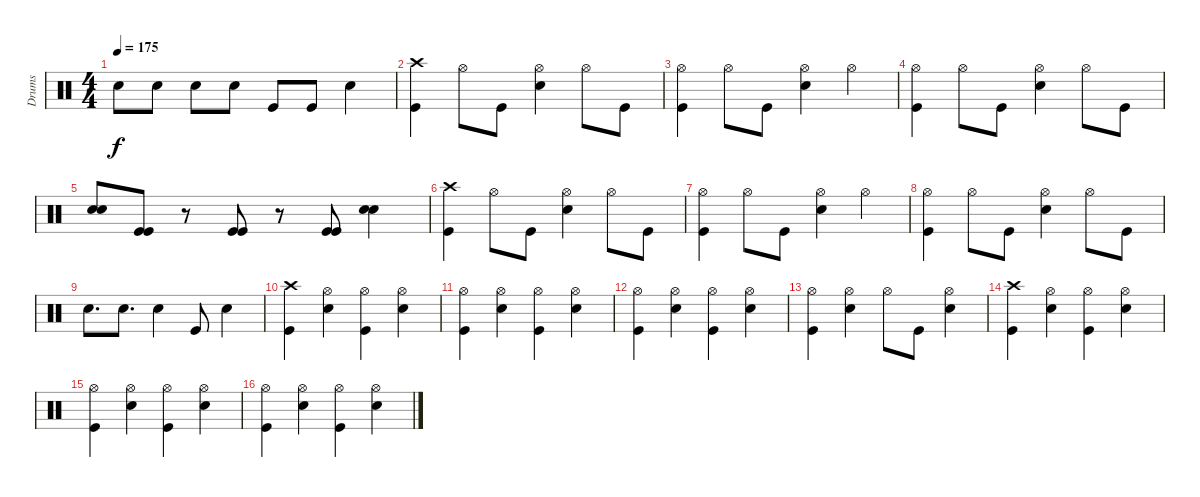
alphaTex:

\track ("Drums" "Drums") {instrument percussion}
\staff {score}
\articulation defaults
\ts (4 4)
\tempo 175
\clef neutral
\ks c "Snare (hit) 2".8{dy f} "Snare (hit) 2".8 "Snare (hit) 2".8 "Snare (hit) 2".8 "Kick (hit)".8 "Kick (hit)".8 "Snare (hit) 2".4
|
("Crash high (hit)" "Kick (hit)").4 "Hi-Hat (open)".8 "Kick (hit)".8 ("Hi-Hat (open)" "Snare (hit) 2").4 "Hi-Hat (open)".8 "Kick (hit)".8 |
("Hi-Hat (open)" "Kick (hit)").4 "Hi-Hat (open)".8 "Kick (hit)".8 ("Hi-Hat (open)" "Snare (hit) 2").4 "Hi-Hat (open)".4 |
("Hi-Hat (open)" "Kick (hit)").4 "Hi-Hat (open)".8 "Kick (hit)".8 ("Hi-Hat (open)" "Snare (hit) 2").4 "Hi-Hat (open)".8 "Kick (hit)".8 |
("Snare (hit) 2" "Snare (hit) 2").8{bd 480} ("Kick (hit)" "Kick (hit)").8 r.8 ("Kick (hit)" "Kick (hit)").8 r.8 ("Kick (hit)" "Kick (hit)").8 ("Snare (hit) 2" "Snare (hit) 2").4 |
("Crash high (hit)" "Kick (hit)").4 "Hi-Hat (open)".8 "Kick (hit)".8 ("Hi-Hat (open)" "Snare (hit) 2").4 "Hi-Hat (open)".8 "Kick (hit)".8 |
("Hi-Hat (open)" "Kick (hit)").4 "Hi-Hat (open)".8 "Kick (hit)".8 ("Hi-Hat (open)" "Snare (hit) 2").4 "Hi-Hat (open)".4 |
("Hi-Hat (open)" "Kick (hit)").4 "Hi-Hat (open)".8 "Kick (hit)".8 ("Hi-Hat (open)" "Snare (hit) 2").4 "Hi-Hat (open)".8 "Kick (hit)".8 |
"Snare (hit) 2".8{d} "Snare (hit) 2".8{d} "Snare (hit) 2".4 "Kick (hit)".8 "Snare (hit) 2".4 |
("Crash high (hit)" "Kick (hit)").4 ("Hi-Hat (open)" "Snare (hit) 2").4 ("Hi-Hat (open)" "Kick (hit)").4 ("Hi-Hat (open)" "Snare (hit) 2").4 |
("Hi-Hat (open)" "Kick (hit)").4 ("Hi-Hat (open)" "Snare (hit) 2").4 ("Hi-Hat (open)" "Kick (hit)").4 ("Hi-Hat (open)" "Snare (hit) 2").4 |
("Hi-Hat (open)" "Kick (hit)").4 ("Hi-Hat (open)" "Snare (hit) 2").4 ("Hi-Hat (open)" "Kick (hit)").4 ("Hi-Hat (open)" "Snare (hit) 2").4 |
("Hi-Hat (open)" "Kick (hit)").4 ("Hi-Hat (open)" "Snare (hit) 2").4 "Hi-Hat (open)".8 "Kick (hit)".8 ("Hi-Hat (open)" "Snare (hit) 2").4 |
("Crash high (hit)" "Kick (hit)").4 ("Hi-Hat (open)" "Snare (hit) 2").4 ("Hi-Hat (open)" "Kick (hit)").4 ("Hi-Hat (open)" "Snare (hit) 2").4 |
("Hi-Hat (open)" "Kick (hit)").4 ("Hi-Hat (open)" "Snare (hit) 2").4 ("Hi-Hat (open)" "Kick (hit)").4 ("Hi-Hat (open)" "Snare (hit) 2").4 |
("Hi-Hat (open)" "Kick (hit)").4 ("Hi-Hat (open)" "Snare (hit) 2").4 ("Hi-Hat (open)" "Kick (hit)").4 ("Hi-Hat (open)" "Snare (hit) 2").4
